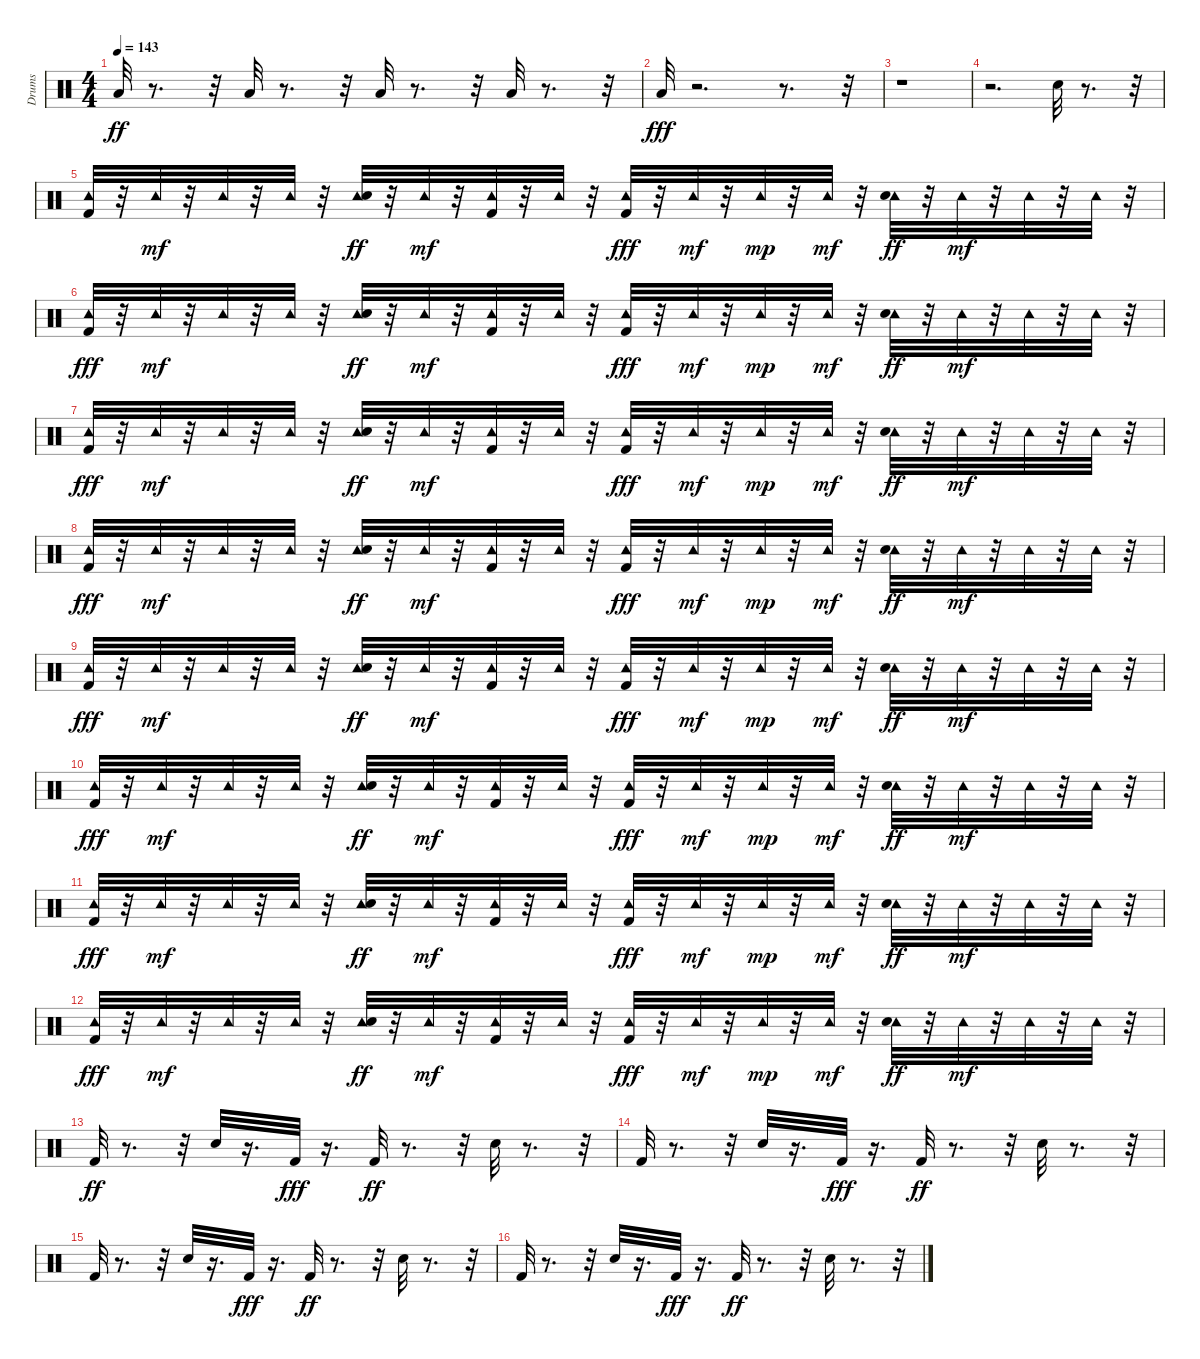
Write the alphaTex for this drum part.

\track ("Drums" "Drums") {instrument percussion}
\staff {score}
\articulation defaults
\ts (4 4)
\tempo 143
\clef neutral
\ks c "Low Floor Tom (hit)".32{dy ff}
r.8{d} r.32 "Low Floor Tom (hit)".32 r.8{d} r.32 "Low Floor Tom (hit)".32 r.8{d} r.32 "Low Floor Tom (hit)".32 r.8{d} r.32 |
"Low Floor Tom (hit)".32{dy fff} r.2{d} r.8{d} r.32 |
r.1 |
r.2{d} "Snare (hit) 2".32 r.8{d} r.32 |
("Kick (hit) 2" "Tambourine (hit)").32 r.32 "Tambourine (hit)".32{dy mf} r.32 "Tambourine (hit)".32 r.32 "Tambourine (hit)".32 r.32 ("Tambourine (hit)" "Snare (hit) 2").32{dy ff} r.32 "Tambourine (hit)".32{dy mf} r.32 ("Kick (hit) 2" "Tambourine (hit)").32 r.32 "Tambourine (hit)".32 r.32 ("Kick (hit) 2" "Tambourine (hit)").32{dy fff} r.32 "Tambourine (hit)".32{dy mf} r.32 "Tambourine (hit)".32{dy mp} r.32 "Tambourine (hit)".32{dy mf} r.32 ("Tambourine (hit)" "Snare (hit) 2").32{dy ff} r.32 "Tambourine (hit)".32{dy mf} r.32 "Tambourine (hit)".32 r.32 "Tambourine (hit)".32 r.32 |
("Kick (hit) 2" "Tambourine (hit)").32{dy fff} r.32 "Tambourine (hit)".32{dy mf} r.32 "Tambourine (hit)".32 r.32 "Tambourine (hit)".32 r.32 ("Tambourine (hit)" "Snare (hit) 2").32{dy ff} r.32 "Tambourine (hit)".32{dy mf} r.32 ("Kick (hit) 2" "Tambourine (hit)").32 r.32 "Tambourine (hit)".32 r.32 ("Kick (hit) 2" "Tambourine (hit)").32{dy fff} r.32 "Tambourine (hit)".32{dy mf} r.32 "Tambourine (hit)".32{dy mp} r.32 "Tambourine (hit)".32{dy mf} r.32 ("Tambourine (hit)" "Snare (hit) 2").32{dy ff} r.32 "Tambourine (hit)".32{dy mf} r.32 "Tambourine (hit)".32 r.32 "Tambourine (hit)".32 r.32 |
("Kick (hit) 2" "Tambourine (hit)").32{dy fff} r.32 "Tambourine (hit)".32{dy mf} r.32 "Tambourine (hit)".32 r.32 "Tambourine (hit)".32 r.32 ("Tambourine (hit)" "Snare (hit) 2").32{dy ff} r.32 "Tambourine (hit)".32{dy mf} r.32 ("Kick (hit) 2" "Tambourine (hit)").32 r.32 "Tambourine (hit)".32 r.32 ("Kick (hit) 2" "Tambourine (hit)").32{dy fff} r.32 "Tambourine (hit)".32{dy mf} r.32 "Tambourine (hit)".32{dy mp} r.32 "Tambourine (hit)".32{dy mf} r.32 ("Tambourine (hit)" "Snare (hit) 2").32{dy ff} r.32 "Tambourine (hit)".32{dy mf} r.32 "Tambourine (hit)".32 r.32 "Tambourine (hit)".32 r.32 |
("Kick (hit) 2" "Tambourine (hit)").32{dy fff} r.32 "Tambourine (hit)".32{dy mf} r.32 "Tambourine (hit)".32 r.32 "Tambourine (hit)".32 r.32 ("Tambourine (hit)" "Snare (hit) 2").32{dy ff} r.32 "Tambourine (hit)".32{dy mf} r.32 ("Kick (hit) 2" "Tambourine (hit)").32 r.32 "Tambourine (hit)".32 r.32 ("Kick (hit) 2" "Tambourine (hit)").32{dy fff} r.32 "Tambourine (hit)".32{dy mf} r.32 "Tambourine (hit)".32{dy mp} r.32 "Tambourine (hit)".32{dy mf} r.32 ("Tambourine (hit)" "Snare (hit) 2").32{dy ff} r.32 "Tambourine (hit)".32{dy mf} r.32 "Tambourine (hit)".32 r.32 "Tambourine (hit)".32 r.32 |
("Kick (hit) 2" "Tambourine (hit)").32{dy fff} r.32 "Tambourine (hit)".32{dy mf} r.32 "Tambourine (hit)".32 r.32 "Tambourine (hit)".32 r.32 ("Tambourine (hit)" "Snare (hit) 2").32{dy ff} r.32 "Tambourine (hit)".32{dy mf} r.32 ("Kick (hit) 2" "Tambourine (hit)").32 r.32 "Tambourine (hit)".32 r.32 ("Kick (hit) 2" "Tambourine (hit)").32{dy fff} r.32 "Tambourine (hit)".32{dy mf} r.32 "Tambourine (hit)".32{dy mp} r.32 "Tambourine (hit)".32{dy mf} r.32 ("Tambourine (hit)" "Snare (hit) 2").32{dy ff} r.32 "Tambourine (hit)".32{dy mf} r.32 "Tambourine (hit)".32 r.32 "Tambourine (hit)".32 r.32 |
("Kick (hit) 2" "Tambourine (hit)").32{dy fff} r.32 "Tambourine (hit)".32{dy mf} r.32 "Tambourine (hit)".32 r.32 "Tambourine (hit)".32 r.32 ("Tambourine (hit)" "Snare (hit) 2").32{dy ff} r.32 "Tambourine (hit)".32{dy mf} r.32 ("Kick (hit) 2" "Tambourine (hit)").32 r.32 "Tambourine (hit)".32 r.32 ("Kick (hit) 2" "Tambourine (hit)").32{dy fff} r.32 "Tambourine (hit)".32{dy mf} r.32 "Tambourine (hit)".32{dy mp} r.32 "Tambourine (hit)".32{dy mf} r.32 ("Tambourine (hit)" "Snare (hit) 2").32{dy ff} r.32 "Tambourine (hit)".32{dy mf} r.32 "Tambourine (hit)".32 r.32 "Tambourine (hit)".32 r.32 |
("Kick (hit) 2" "Tambourine (hit)").32{dy fff} r.32 "Tambourine (hit)".32{dy mf} r.32 "Tambourine (hit)".32 r.32 "Tambourine (hit)".32 r.32 ("Tambourine (hit)" "Snare (hit) 2").32{dy ff} r.32 "Tambourine (hit)".32{dy mf} r.32 ("Kick (hit) 2" "Tambourine (hit)").32 r.32 "Tambourine (hit)".32 r.32 ("Kick (hit) 2" "Tambourine (hit)").32{dy fff} r.32 "Tambourine (hit)".32{dy mf} r.32 "Tambourine (hit)".32{dy mp} r.32 "Tambourine (hit)".32{dy mf} r.32 ("Tambourine (hit)" "Snare (hit) 2").32{dy ff} r.32 "Tambourine (hit)".32{dy mf} r.32 "Tambourine (hit)".32 r.32 "Tambourine (hit)".32 r.32 |
("Kick (hit) 2" "Tambourine (hit)").32{dy fff} r.32 "Tambourine (hit)".32{dy mf} r.32 "Tambourine (hit)".32 r.32 "Tambourine (hit)".32 r.32 ("Tambourine (hit)" "Snare (hit) 2").32{dy ff} r.32 "Tambourine (hit)".32{dy mf} r.32 ("Kick (hit) 2" "Tambourine (hit)").32 r.32 "Tambourine (hit)".32 r.32 ("Kick (hit) 2" "Tambourine (hit)").32{dy fff} r.32 "Tambourine (hit)".32{dy mf} r.32 "Tambourine (hit)".32{dy mp} r.32 "Tambourine (hit)".32{dy mf} r.32 ("Tambourine (hit)" "Snare (hit) 2").32{dy ff} r.32 "Tambourine (hit)".32{dy mf} r.32 "Tambourine (hit)".32 r.32 "Tambourine (hit)".32 r.32 |
"Kick (hit) 2".32{dy ff} r.8{d} r.32 "Snare (hit) 2".32 r.16{d} "Kick (hit) 2".32{dy fff} r.16{d} "Kick (hit) 2".32{dy ff} r.8{d} r.32 "Snare (hit) 2".32 r.8{d} r.32 |
"Kick (hit) 2".32 r.8{d} r.32 "Snare (hit) 2".32 r.16{d} "Kick (hit) 2".32{dy fff} r.16{d} "Kick (hit) 2".32{dy ff} r.8{d} r.32 "Snare (hit) 2".32 r.8{d} r.32 |
"Kick (hit) 2".32 r.8{d} r.32 "Snare (hit) 2".32 r.16{d} "Kick (hit) 2".32{dy fff} r.16{d} "Kick (hit) 2".32{dy ff} r.8{d} r.32 "Snare (hit) 2".32 r.8{d} r.32 |
"Kick (hit) 2".32 r.8{d} r.32 "Snare (hit) 2".32 r.16{d} "Kick (hit) 2".32{dy fff} r.16{d} "Kick (hit) 2".32{dy ff} r.8{d} r.32 "Snare (hit) 2".32 r.8{d} r.32
